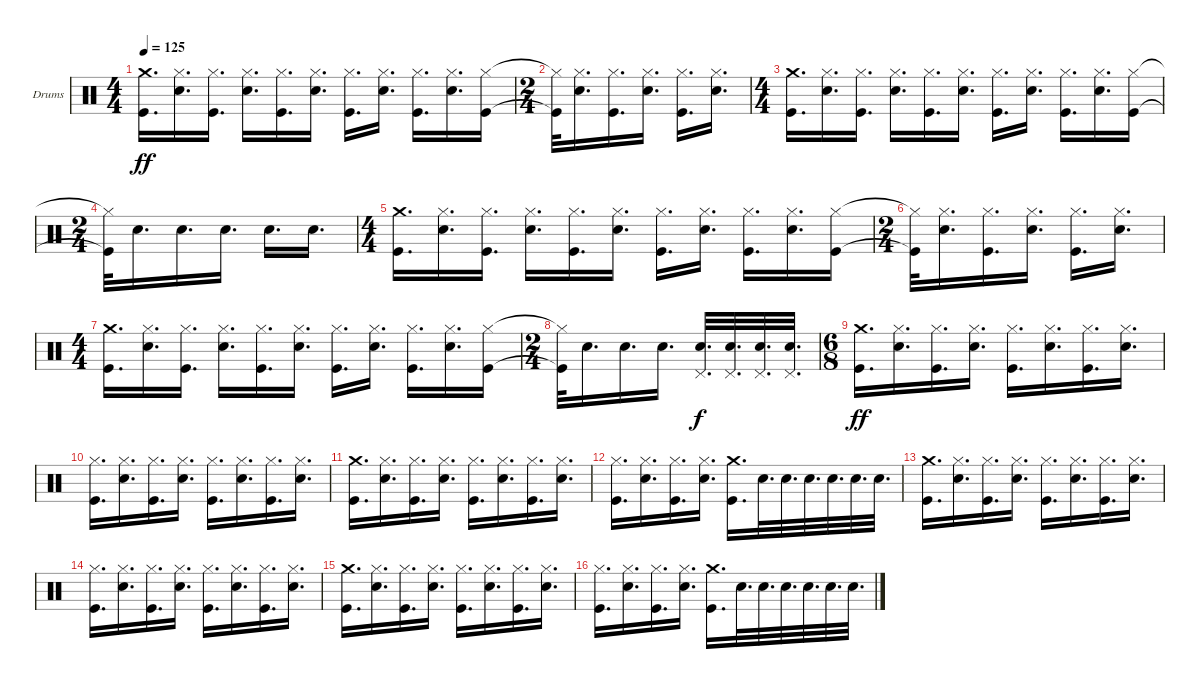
\defaultSystemsLayout 4
\bracketExtendMode groupsimilarinstruments
\firstSystemTrackNameOrientation horizontal
\otherSystemsTrackNameOrientation horizontal
\track ("Drumkit" "Drums") {instrument percussion}
\staff {score}
\articulation defaults
\ts (4 4)
\tempo 125
\clef neutral
\scale
0.213483
\ks c
("Kick (hit)" "Crash medium (hit)").16{d dy ff} ("Snare (hit) 2" "Hi-Hat (closed)").16{d} ("Kick (hit)" "Hi-Hat (closed)").16{d} ("Snare (hit) 2" "Hi-Hat (closed)").16{d} ("Kick (hit)" "Hi-Hat (closed)").16{d} ("Snare (hit) 2" "Hi-Hat (closed)").16{d} ("Kick (hit)" "Hi-Hat (closed)").16{d} ("Snare (hit) 2" "Hi-Hat (closed)").16{d} ("Kick (hit)" "Hi-Hat (closed)").16{d} ("Snare (hit) 2" "Hi-Hat (closed)").16{d} ("Kick (hit)" "Hi-Hat (closed)").16 |
\ts (2 4)
\scale
0.382022 ("Kick (hit)"{t} "Hi-Hat (closed)"{t}).32 ("Snare (hit) 2" "Hi-Hat (closed)").16{d} ("Kick (hit)" "Hi-Hat (closed)").16{d} ("Snare (hit) 2" "Hi-Hat (closed)").16{d} ("Kick (hit)" "Hi-Hat (closed)").16{d} ("Snare (hit) 2" "Hi-Hat (closed)").16{d} |
\ts (4 4)
\scale
0.333333 ("Kick (hit)" "Crash medium (hit)").16{d} ("Snare (hit) 2" "Hi-Hat (closed)").16{d} ("Kick (hit)" "Hi-Hat (closed)").16{d} ("Snare (hit) 2" "Hi-Hat (closed)").16{d} ("Kick (hit)" "Hi-Hat (closed)").16{d} ("Snare (hit) 2" "Hi-Hat (closed)").16{d} ("Kick (hit)" "Hi-Hat (closed)").16{d} ("Snare (hit) 2" "Hi-Hat (closed)").16{d} ("Kick (hit)" "Hi-Hat (closed)").16{d} ("Snare (hit) 2" "Hi-Hat (closed)").16{d} ("Kick (hit)" "Hi-Hat (closed)").16 |
\ts (2 4)
\scale
0.333333 ("Kick (hit)"{t} "Hi-Hat (closed)"{t}).32 "Snare (hit) 2".16{d} "Snare (hit) 2".16{d} "Snare (hit) 2".16{d} "Snare (hit) 2".16{d} "Snare (hit) 2".16{d} |
\ts (4 4)
\scale
0.333333 ("Kick (hit)" "Crash medium (hit)").16{d} ("Snare (hit) 2" "Hi-Hat (closed)").16{d} ("Kick (hit)" "Hi-Hat (closed)").16{d} ("Snare (hit) 2" "Hi-Hat (closed)").16{d} ("Kick (hit)" "Hi-Hat (closed)").16{d} ("Snare (hit) 2" "Hi-Hat (closed)").16{d} ("Kick (hit)" "Hi-Hat (closed)").16{d} ("Snare (hit) 2" "Hi-Hat (closed)").16{d} ("Kick (hit)" "Hi-Hat (closed)").16{d} ("Snare (hit) 2" "Hi-Hat (closed)").16{d} ("Kick (hit)" "Hi-Hat (closed)").16 |
\ts (2 4)
\scale
0.333333 ("Kick (hit)"{t} "Hi-Hat (closed)"{t}).32 ("Snare (hit) 2" "Hi-Hat (closed)").16{d} ("Kick (hit)" "Hi-Hat (closed)").16{d} ("Snare (hit) 2" "Hi-Hat (closed)").16{d} ("Kick (hit)" "Hi-Hat (closed)").16{d} ("Snare (hit) 2" "Hi-Hat (closed)").16{d} |
\ts (4 4)
\scale
0.333333 ("Kick (hit)" "Crash medium (hit)").16{d} ("Snare (hit) 2" "Hi-Hat (closed)").16{d} ("Kick (hit)" "Hi-Hat (closed)").16{d} ("Snare (hit) 2" "Hi-Hat (closed)").16{d} ("Kick (hit)" "Hi-Hat (closed)").16{d} ("Snare (hit) 2" "Hi-Hat (closed)").16{d} ("Kick (hit)" "Hi-Hat (closed)").16{d} ("Snare (hit) 2" "Hi-Hat (closed)").16{d} ("Kick (hit)" "Hi-Hat (closed)").16{d} ("Snare (hit) 2" "Hi-Hat (closed)").16{d} ("Kick (hit)" "Hi-Hat (closed)").16 |
\ts (2 4)
\scale
0.333333 ("Kick (hit)"{t} "Hi-Hat (closed)"{t}).32 "Snare (hit) 2".16{d} "Snare (hit) 2".16{d} "Snare (hit) 2".16{d} ("Pedal Hi-Hat (hit)" "Snare (hit) 2").32{d dy f} ("Pedal Hi-Hat (hit)" "Snare (hit) 2").32{d} ("Pedal Hi-Hat (hit)" "Snare (hit) 2").32{d} ("Pedal Hi-Hat (hit)" "Snare (hit) 2").32{d} |
\ts (6 8)
("Kick (hit)" "Crash medium (hit)").16{d dy ff} ("Snare (hit) 2" "Hi-Hat (closed)").16{d} ("Kick (hit)" "Hi-Hat (closed)").16{d} ("Snare (hit) 2" "Hi-Hat (closed)").16{d} ("Kick (hit)" "Hi-Hat (closed)").16{d} ("Snare (hit) 2" "Hi-Hat (closed)").16{d} ("Kick (hit)" "Hi-Hat (closed)").16{d} ("Snare (hit) 2" "Hi-Hat (closed)").16{d} |
("Kick (hit)" "Hi-Hat (closed)").16{d} ("Snare (hit) 2" "Hi-Hat (closed)").16{d} ("Kick (hit)" "Hi-Hat (closed)").16{d} ("Snare (hit) 2" "Hi-Hat (closed)").16{d} ("Kick (hit)" "Hi-Hat (closed)").16{d} ("Snare (hit) 2" "Hi-Hat (closed)").16{d} ("Kick (hit)" "Hi-Hat (closed)").16{d} ("Snare (hit) 2" "Hi-Hat (closed)").16{d} |
("Kick (hit)" "Crash medium (hit)").16{d} ("Snare (hit) 2" "Hi-Hat (closed)").16{d} ("Kick (hit)" "Hi-Hat (closed)").16{d} ("Snare (hit) 2" "Hi-Hat (closed)").16{d} ("Kick (hit)" "Hi-Hat (closed)").16{d} ("Snare (hit) 2" "Hi-Hat (closed)").16{d} ("Kick (hit)" "Hi-Hat (closed)").16{d} ("Snare (hit) 2" "Hi-Hat (closed)").16{d} |
("Kick (hit)" "Hi-Hat (closed)").16{d} ("Snare (hit) 2" "Hi-Hat (closed)").16{d} ("Kick (hit)" "Hi-Hat (closed)").16{d} ("Snare (hit) 2" "Hi-Hat (closed)").16{d} ("Kick (hit)" "Crash medium (hit)").16{d} "Snare (hit) 2".32{d} "Snare (hit) 2".32{d} "Snare (hit) 2".32{d} "Snare (hit) 2".32{d} "Snare (hit) 2".32{d} "Snare (hit) 2".32{d} |
("Kick (hit)" "Crash medium (hit)").16{d} ("Snare (hit) 2" "Hi-Hat (closed)").16{d} ("Kick (hit)" "Hi-Hat (closed)").16{d} ("Snare (hit) 2" "Hi-Hat (closed)").16{d} ("Kick (hit)" "Hi-Hat (closed)").16{d} ("Snare (hit) 2" "Hi-Hat (closed)").16{d} ("Kick (hit)" "Hi-Hat (closed)").16{d} ("Snare (hit) 2" "Hi-Hat (closed)").16{d} |
("Kick (hit)" "Hi-Hat (closed)").16{d} ("Snare (hit) 2" "Hi-Hat (closed)").16{d} ("Kick (hit)" "Hi-Hat (closed)").16{d} ("Snare (hit) 2" "Hi-Hat (closed)").16{d} ("Kick (hit)" "Hi-Hat (closed)").16{d} ("Snare (hit) 2" "Hi-Hat (closed)").16{d} ("Kick (hit)" "Hi-Hat (closed)").16{d} ("Snare (hit) 2" "Hi-Hat (closed)").16{d} |
("Kick (hit)" "Crash medium (hit)").16{d} ("Snare (hit) 2" "Hi-Hat (closed)").16{d} ("Kick (hit)" "Hi-Hat (closed)").16{d} ("Snare (hit) 2" "Hi-Hat (closed)").16{d} ("Kick (hit)" "Hi-Hat (closed)").16{d} ("Snare (hit) 2" "Hi-Hat (closed)").16{d} ("Kick (hit)" "Hi-Hat (closed)").16{d} ("Snare (hit) 2" "Hi-Hat (closed)").16{d} |
("Kick (hit)" "Hi-Hat (closed)").16{d} ("Snare (hit) 2" "Hi-Hat (closed)").16{d} ("Kick (hit)" "Hi-Hat (closed)").16{d} ("Snare (hit) 2" "Hi-Hat (closed)").16{d} ("Kick (hit)" "Crash medium (hit)").16{d} "Snare (hit) 2".32{d} "Snare (hit) 2".32{d} "Snare (hit) 2".32{d} "Snare (hit) 2".32{d} "Snare (hit) 2".32{d} "Snare (hit) 2".32{d}
